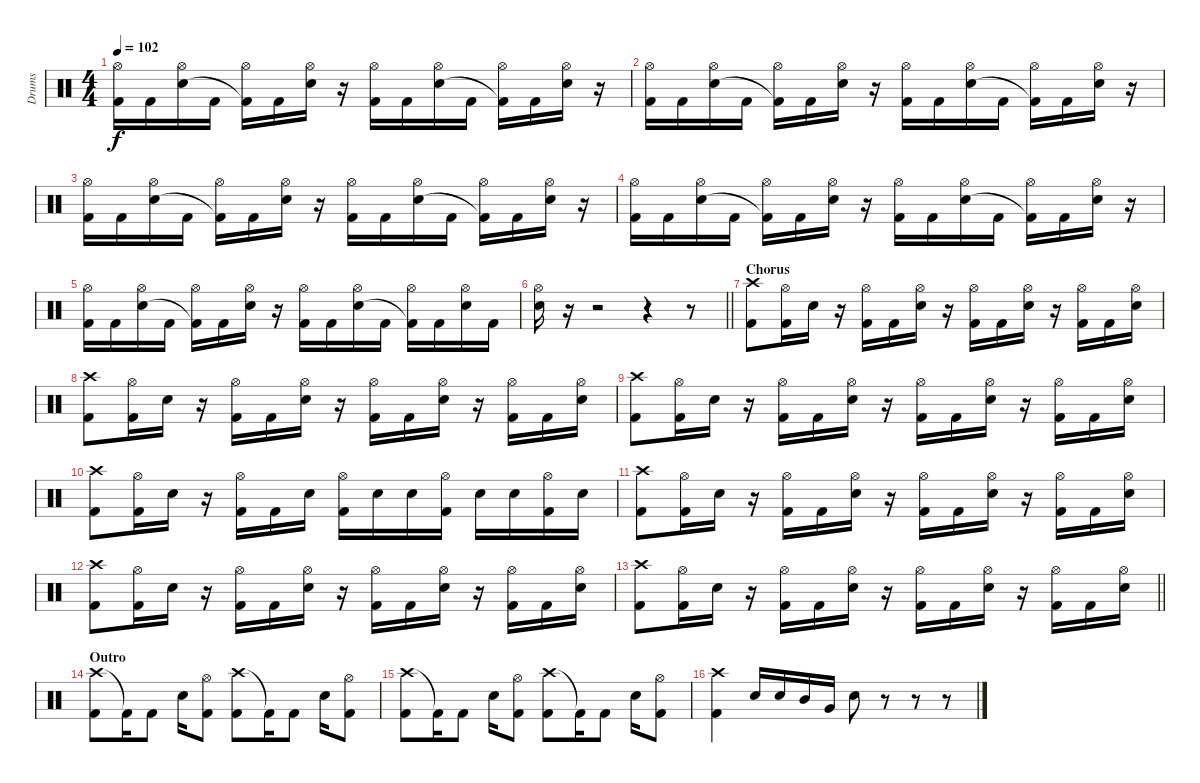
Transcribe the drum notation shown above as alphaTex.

\track ("Drums" "Drums") {instrument percussion}
\staff {score}
\articulation defaults
\ts (4 4)
\tempo 102
\clef neutral
\ks c
("Hi-Hat (open)" "Kick (hit) 2").16{dy f} "Kick (hit) 2".16 ("Hi-Hat (open)" "Electric Snare (hit)").16 "Kick (hit) 2".16 ("Hi-Hat (open)" "Kick (hit) 2"{t}).16 "Kick (hit) 2".16 ("Hi-Hat (open)" "Electric Snare (hit)").16 r.16 ("Hi-Hat (open)" "Kick (hit) 2").16 "Kick (hit) 2".16 ("Hi-Hat (open)" "Electric Snare (hit)").16 "Kick (hit) 2".16 ("Hi-Hat (open)" "Kick (hit) 2"{t}).16 "Kick (hit) 2".16 ("Hi-Hat (open)" "Electric Snare (hit)").16 r.16 |
("Hi-Hat (open)" "Kick (hit) 2").16 "Kick (hit) 2".16 ("Hi-Hat (open)" "Electric Snare (hit)").16 "Kick (hit) 2".16 ("Hi-Hat (open)" "Kick (hit) 2"{t}).16 "Kick (hit) 2".16 ("Hi-Hat (open)" "Electric Snare (hit)").16 r.16 ("Hi-Hat (open)" "Kick (hit) 2").16 "Kick (hit) 2".16 ("Hi-Hat (open)" "Electric Snare (hit)").16 "Kick (hit) 2".16 ("Hi-Hat (open)" "Kick (hit) 2"{t}).16 "Kick (hit) 2".16 ("Hi-Hat (open)" "Electric Snare (hit)").16 r.16 |
("Hi-Hat (open)" "Kick (hit) 2").16 "Kick (hit) 2".16 ("Hi-Hat (open)" "Electric Snare (hit)").16 "Kick (hit) 2".16 ("Hi-Hat (open)" "Kick (hit) 2"{t}).16 "Kick (hit) 2".16 ("Hi-Hat (open)" "Electric Snare (hit)").16 r.16 ("Hi-Hat (open)" "Kick (hit) 2").16 "Kick (hit) 2".16 ("Hi-Hat (open)" "Electric Snare (hit)").16 "Kick (hit) 2".16 ("Hi-Hat (open)" "Kick (hit) 2"{t}).16 "Kick (hit) 2".16 ("Hi-Hat (open)" "Electric Snare (hit)").16 r.16 |
("Hi-Hat (open)" "Kick (hit) 2").16 "Kick (hit) 2".16 ("Hi-Hat (open)" "Electric Snare (hit)").16 "Kick (hit) 2".16 ("Hi-Hat (open)" "Kick (hit) 2"{t}).16 "Kick (hit) 2".16 ("Hi-Hat (open)" "Electric Snare (hit)").16 r.16 ("Hi-Hat (open)" "Kick (hit) 2").16 "Kick (hit) 2".16 ("Hi-Hat (open)" "Electric Snare (hit)").16 "Kick (hit) 2".16 ("Hi-Hat (open)" "Kick (hit) 2"{t}).16 "Kick (hit) 2".16 ("Hi-Hat (open)" "Electric Snare (hit)").16 r.16 |
("Hi-Hat (open)" "Kick (hit) 2").16 "Kick (hit) 2".16 ("Hi-Hat (open)" "Electric Snare (hit)").16 "Kick (hit) 2".16 ("Hi-Hat (open)" "Kick (hit) 2"{t}).16 "Kick (hit) 2".16 ("Hi-Hat (open)" "Electric Snare (hit)").16 r.16 ("Hi-Hat (open)" "Kick (hit) 2").16 "Kick (hit) 2".16 ("Hi-Hat (open)" "Electric Snare (hit)").16 "Kick (hit) 2".16 ("Hi-Hat (open)" "Kick (hit) 2"{t}).16 "Kick (hit) 2".16 ("Hi-Hat (open)" "Electric Snare (hit)").16 "Kick (hit) 2".16 |
\barLineRight lightlight
("Hi-Hat (open)" "Electric Snare (hit)").16 r.16 r.2 r.4 r.8 |
\section ("" "Chorus")
("Crash high (hit)" "Kick (hit) 2").8 ("Hi-Hat (open)" "Kick (hit) 2").16 "Electric Snare (hit)".16 r.16 ("Hi-Hat (open)" "Kick (hit) 2").16 "Kick (hit) 2".16 ("Hi-Hat (open)" "Electric Snare (hit)").16 r.16 ("Hi-Hat (open)" "Kick (hit) 2").16 "Kick (hit) 2".16 ("Hi-Hat (open)" "Electric Snare (hit)").16 r.16 ("Hi-Hat (open)" "Kick (hit) 2").16 "Kick (hit) 2".16 ("Hi-Hat (open)" "Electric Snare (hit)").16 |
("Crash high (hit)" "Kick (hit) 2").8 ("Hi-Hat (open)" "Kick (hit) 2").16 "Electric Snare (hit)".16 r.16 ("Hi-Hat (open)" "Kick (hit) 2").16 "Kick (hit) 2".16 ("Hi-Hat (open)" "Electric Snare (hit)").16 r.16 ("Hi-Hat (open)" "Kick (hit) 2").16 "Kick (hit) 2".16 ("Hi-Hat (open)" "Electric Snare (hit)").16 r.16 ("Hi-Hat (open)" "Kick (hit) 2").16 "Kick (hit) 2".16 ("Hi-Hat (open)" "Electric Snare (hit)").16 |
("Crash high (hit)" "Kick (hit) 2").8 ("Hi-Hat (open)" "Kick (hit) 2").16 "Electric Snare (hit)".16 r.16 ("Hi-Hat (open)" "Kick (hit) 2").16 "Kick (hit) 2".16 ("Hi-Hat (open)" "Electric Snare (hit)").16 r.16 ("Hi-Hat (open)" "Kick (hit) 2").16 "Kick (hit) 2".16 ("Hi-Hat (open)" "Electric Snare (hit)").16 r.16 ("Hi-Hat (open)" "Kick (hit) 2").16 "Kick (hit) 2".16 ("Hi-Hat (open)" "Electric Snare (hit)").16 |
("Crash high (hit)" "Kick (hit) 2").8 ("Hi-Hat (open)" "Kick (hit) 2").16 "Electric Snare (hit)".16 r.16 ("Hi-Hat (open)" "Kick (hit) 2").16 "Kick (hit) 2".16 "Electric Snare (hit)".16 ("Hi-Hat (open)" "Kick (hit) 2").16 "Electric Snare (hit)".16 "Electric Snare (hit)".16 ("Hi-Hat (open)" "Kick (hit) 2").16 "Electric Snare (hit)".16 "Electric Snare (hit)".16 ("Hi-Hat (open)" "Kick (hit) 2").16 "Electric Snare (hit)".16 |
("Crash high (hit)" "Kick (hit) 2").8 ("Hi-Hat (open)" "Kick (hit) 2").16 "Electric Snare (hit)".16 r.16 ("Hi-Hat (open)" "Kick (hit) 2").16 "Kick (hit) 2".16 ("Hi-Hat (open)" "Electric Snare (hit)").16 r.16 ("Hi-Hat (open)" "Kick (hit) 2").16 "Kick (hit) 2".16 ("Hi-Hat (open)" "Electric Snare (hit)").16 r.16 ("Hi-Hat (open)" "Kick (hit) 2").16 "Kick (hit) 2".16 ("Hi-Hat (open)" "Electric Snare (hit)").16 |
("Crash high (hit)" "Kick (hit) 2").8 ("Hi-Hat (open)" "Kick (hit) 2").16 "Electric Snare (hit)".16 r.16 ("Hi-Hat (open)" "Kick (hit) 2").16 "Kick (hit) 2".16 ("Hi-Hat (open)" "Electric Snare (hit)").16 r.16 ("Hi-Hat (open)" "Kick (hit) 2").16 "Kick (hit) 2".16 ("Hi-Hat (open)" "Electric Snare (hit)").16 r.16 ("Hi-Hat (open)" "Kick (hit) 2").16 "Kick (hit) 2".16 ("Hi-Hat (open)" "Electric Snare (hit)").16 |
\barLineRight lightlight
("Crash high (hit)" "Kick (hit) 2").8 ("Hi-Hat (open)" "Kick (hit) 2").16 "Electric Snare (hit)".16 r.16 ("Hi-Hat (open)" "Kick (hit) 2").16 "Kick (hit) 2".16 ("Hi-Hat (open)" "Electric Snare (hit)").16 r.16 ("Hi-Hat (open)" "Kick (hit) 2").16 "Kick (hit) 2".16 ("Hi-Hat (open)" "Electric Snare (hit)").16 r.16 ("Hi-Hat (open)" "Kick (hit) 2").16 "Kick (hit) 2".16 ("Hi-Hat (open)" "Electric Snare (hit)").16 |
\section ("" "Outro")
("Crash high (hit)" "Kick (hit) 2").8 "Kick (hit) 2"{t}.16 "Kick (hit) 2".8 "Electric Snare (hit)".16 ("Hi-Hat (open)" "Kick (hit) 2").8 ("Crash high (hit)" "Kick (hit) 2").8 "Kick (hit) 2"{t}.16 "Kick (hit) 2".8 "Electric Snare (hit)".16 ("Hi-Hat (open)" "Kick (hit) 2").8 |
("Crash high (hit)" "Kick (hit) 2").8 "Kick (hit) 2"{t}.16 "Kick (hit) 2".8 "Electric Snare (hit)".16 ("Hi-Hat (open)" "Kick (hit) 2").8 ("Crash high (hit)" "Kick (hit) 2").8 "Kick (hit) 2"{t}.16 "Kick (hit) 2".8 "Electric Snare (hit)".16 ("Hi-Hat (open)" "Kick (hit) 2").8 |
("Crash high (hit)" "Kick (hit) 2").4 "Electric Snare (hit)".16 "Electric Snare (hit)".16 "Mid Tom (hit)".16 "Very Low Tom (hit)".16 "Electric Snare (hit)".8 r.8 r.8 r.8
